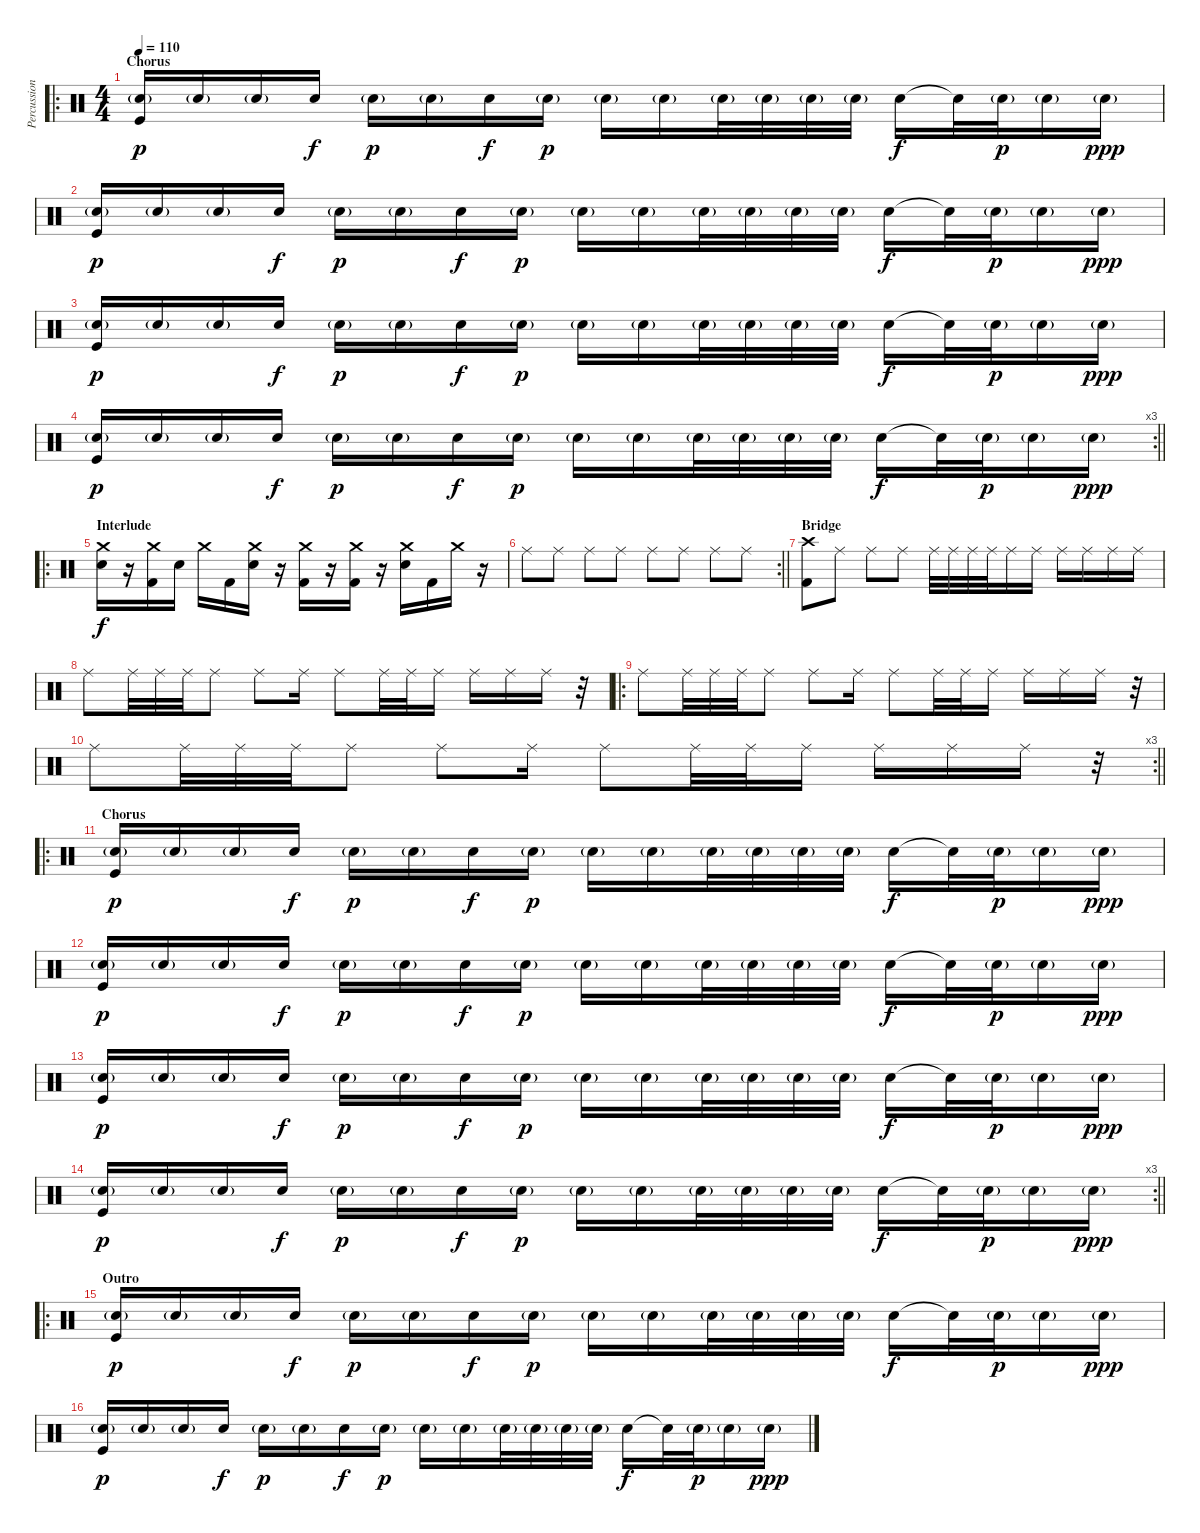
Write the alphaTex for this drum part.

\track ("Percussion" "Percussion") {instrument percussion}
\staff {score}
\articulation defaults
\ro
\ts (4 4)
\section ("" "Chorus")
\tempo 110
\clef neutral
\ks c
("Electric Snare (hit)"{g} "Kick (hit)").16{dy p} "Electric Snare (hit)"{g}.16 "Electric Snare (hit)"{g}.16 "Electric Snare (hit)".16{dy f} "Electric Snare (hit)"{g}.16{dy p} "Electric Snare (hit)"{g}.16 "Electric Snare (hit)".16{dy f} "Electric Snare (hit)"{g}.16{dy p} "Electric Snare (hit)"{g}.16 "Electric Snare (hit)"{g}.16 "Electric Snare (hit)"{g}.32 "Electric Snare (hit)"{g}.32 "Electric Snare (hit)"{g}.32 "Electric Snare (hit)"{g}.32 "Electric Snare (hit)".16{dy f} "Electric Snare (hit)"{t}.32 "Electric Snare (hit)"{g}.32{dy p} "Electric Snare (hit)"{g}.16 "Electric Snare (hit)"{g}.16{dy ppp} |
("Electric Snare (hit)"{g} "Kick (hit)").16{dy p} "Electric Snare (hit)"{g}.16 "Electric Snare (hit)"{g}.16 "Electric Snare (hit)".16{dy f} "Electric Snare (hit)"{g}.16{dy p} "Electric Snare (hit)"{g}.16 "Electric Snare (hit)".16{dy f} "Electric Snare (hit)"{g}.16{dy p} "Electric Snare (hit)"{g}.16 "Electric Snare (hit)"{g}.16 "Electric Snare (hit)"{g}.32 "Electric Snare (hit)"{g}.32 "Electric Snare (hit)"{g}.32 "Electric Snare (hit)"{g}.32 "Electric Snare (hit)".16{dy f} "Electric Snare (hit)"{t}.32 "Electric Snare (hit)"{g}.32{dy p} "Electric Snare (hit)"{g}.16 "Electric Snare (hit)"{g}.16{dy ppp} |
("Electric Snare (hit)"{g} "Kick (hit)").16{dy p} "Electric Snare (hit)"{g}.16 "Electric Snare (hit)"{g}.16 "Electric Snare (hit)".16{dy f} "Electric Snare (hit)"{g}.16{dy p} "Electric Snare (hit)"{g}.16 "Electric Snare (hit)".16{dy f} "Electric Snare (hit)"{g}.16{dy p} "Electric Snare (hit)"{g}.16 "Electric Snare (hit)"{g}.16 "Electric Snare (hit)"{g}.32 "Electric Snare (hit)"{g}.32 "Electric Snare (hit)"{g}.32 "Electric Snare (hit)"{g}.32 "Electric Snare (hit)".16{dy f} "Electric Snare (hit)"{t}.32 "Electric Snare (hit)"{g}.32{dy p} "Electric Snare (hit)"{g}.16 "Electric Snare (hit)"{g}.16{dy ppp} |
\rc 3
\barLineRight lightlight
("Electric Snare (hit)"{g} "Kick (hit)").16{dy p} "Electric Snare (hit)"{g}.16 "Electric Snare (hit)"{g}.16 "Electric Snare (hit)".16{dy f} "Electric Snare (hit)"{g}.16{dy p} "Electric Snare (hit)"{g}.16 "Electric Snare (hit)".16{dy f} "Electric Snare (hit)"{g}.16{dy p} "Electric Snare (hit)"{g}.16 "Electric Snare (hit)"{g}.16 "Electric Snare (hit)"{g}.32 "Electric Snare (hit)"{g}.32 "Electric Snare (hit)"{g}.32 "Electric Snare (hit)"{g}.32 "Electric Snare (hit)".16{dy f} "Electric Snare (hit)"{t}.32 "Electric Snare (hit)"{g}.32{dy p} "Electric Snare (hit)"{g}.16 "Electric Snare (hit)"{g}.16{dy ppp} |
\ro
\section ("" "Interlude")
("Crash medium (hit)" "Electric Snare (hit)").16{dy f} r.16 ("Crash medium (hit)" "Kick (hit) 2").16 "Electric Snare (hit)".16 "Crash medium (hit)".16 "Kick (hit) 2".16 ("Crash medium (hit)" "Electric Snare (hit)").16 r.16 ("Crash medium (hit)" "Kick (hit) 2").16 r.16 ("Crash medium (hit)" "Kick (hit) 2").16 r.16 ("Crash medium (hit)" "Electric Snare (hit)").16 "Kick (hit) 2".16 "Crash medium (hit)".16 r.16 |
\rc 2
\barLineRight lightlight "Ride (middle)".8 "Ride (middle)".8 "Ride (middle)".8 "Ride (middle)".8 "Ride (middle)".8 "Ride (middle)".8 "Ride (middle)".8 "Ride (middle)".8
|
\section ("" "Bridge")
("Crash high (hit)" "Kick (hit) 2").8 "Ride (middle)".8 "Ride (middle)".8 "Ride (middle)".8 "Ride (middle)".32 "Ride (middle)".32 "Ride (middle)".32 "Ride (middle)".32 "Ride (middle)".16 "Ride (middle)".16 "Ride (middle)".16 "Ride (middle)".16 "Ride (middle)".16 "Ride (middle)".16 |
"Ride (middle)".8 "Ride (middle)".32 "Ride (middle)".32 "Ride (middle)".32 "Ride (middle)".8 "Ride (middle)".8 "Ride (middle)".16 "Ride (middle)".8 "Ride (middle)".32 "Ride (middle)".32 "Ride (middle)".16 "Ride (middle)".16 "Ride (middle)".16 "Ride (middle)".16 r.32 |
\ro "Ride (middle)".8 "Ride (middle)".32 "Ride (middle)".32 "Ride (middle)".32 "Ride (middle)".8 "Ride (middle)".8 "Ride (middle)".16 "Ride (middle)".8 "Ride (middle)".32 "Ride (middle)".32 "Ride (middle)".16 "Ride (middle)".16 "Ride (middle)".16 "Ride (middle)".16
r.32 |
\rc 3
\barLineRight lightlight "Ride (middle)".8 "Ride (middle)".32 "Ride (middle)".32 "Ride (middle)".32 "Ride (middle)".8 "Ride (middle)".8 "Ride (middle)".16 "Ride (middle)".8 "Ride (middle)".32 "Ride (middle)".32 "Ride (middle)".16 "Ride (middle)".16 "Ride (middle)".16 "Ride (middle)".16
r.32 |
\ro
\section ("" "Chorus")
("Electric Snare (hit)"{g} "Kick (hit)").16{dy p} "Electric Snare (hit)"{g}.16 "Electric Snare (hit)"{g}.16 "Electric Snare (hit)".16{dy f} "Electric Snare (hit)"{g}.16{dy p} "Electric Snare (hit)"{g}.16 "Electric Snare (hit)".16{dy f} "Electric Snare (hit)"{g}.16{dy p} "Electric Snare (hit)"{g}.16 "Electric Snare (hit)"{g}.16 "Electric Snare (hit)"{g}.32 "Electric Snare (hit)"{g}.32 "Electric Snare (hit)"{g}.32 "Electric Snare (hit)"{g}.32 "Electric Snare (hit)".16{dy f} "Electric Snare (hit)"{t}.32 "Electric Snare (hit)"{g}.32{dy p} "Electric Snare (hit)"{g}.16 "Electric Snare (hit)"{g}.16{dy ppp} |
("Electric Snare (hit)"{g} "Kick (hit)").16{dy p} "Electric Snare (hit)"{g}.16 "Electric Snare (hit)"{g}.16 "Electric Snare (hit)".16{dy f} "Electric Snare (hit)"{g}.16{dy p} "Electric Snare (hit)"{g}.16 "Electric Snare (hit)".16{dy f} "Electric Snare (hit)"{g}.16{dy p} "Electric Snare (hit)"{g}.16 "Electric Snare (hit)"{g}.16 "Electric Snare (hit)"{g}.32 "Electric Snare (hit)"{g}.32 "Electric Snare (hit)"{g}.32 "Electric Snare (hit)"{g}.32 "Electric Snare (hit)".16{dy f} "Electric Snare (hit)"{t}.32 "Electric Snare (hit)"{g}.32{dy p} "Electric Snare (hit)"{g}.16 "Electric Snare (hit)"{g}.16{dy ppp} |
("Electric Snare (hit)"{g} "Kick (hit)").16{dy p} "Electric Snare (hit)"{g}.16 "Electric Snare (hit)"{g}.16 "Electric Snare (hit)".16{dy f} "Electric Snare (hit)"{g}.16{dy p} "Electric Snare (hit)"{g}.16 "Electric Snare (hit)".16{dy f} "Electric Snare (hit)"{g}.16{dy p} "Electric Snare (hit)"{g}.16 "Electric Snare (hit)"{g}.16 "Electric Snare (hit)"{g}.32 "Electric Snare (hit)"{g}.32 "Electric Snare (hit)"{g}.32 "Electric Snare (hit)"{g}.32 "Electric Snare (hit)".16{dy f} "Electric Snare (hit)"{t}.32 "Electric Snare (hit)"{g}.32{dy p} "Electric Snare (hit)"{g}.16 "Electric Snare (hit)"{g}.16{dy ppp} |
\rc 3
\barLineRight lightlight
("Electric Snare (hit)"{g} "Kick (hit)").16{dy p} "Electric Snare (hit)"{g}.16 "Electric Snare (hit)"{g}.16 "Electric Snare (hit)".16{dy f} "Electric Snare (hit)"{g}.16{dy p} "Electric Snare (hit)"{g}.16 "Electric Snare (hit)".16{dy f} "Electric Snare (hit)"{g}.16{dy p} "Electric Snare (hit)"{g}.16 "Electric Snare (hit)"{g}.16 "Electric Snare (hit)"{g}.32 "Electric Snare (hit)"{g}.32 "Electric Snare (hit)"{g}.32 "Electric Snare (hit)"{g}.32 "Electric Snare (hit)".16{dy f} "Electric Snare (hit)"{t}.32 "Electric Snare (hit)"{g}.32{dy p} "Electric Snare (hit)"{g}.16 "Electric Snare (hit)"{g}.16{dy ppp} |
\ro
\section ("" "Outro")
("Electric Snare (hit)"{g} "Kick (hit)").16{dy p} "Electric Snare (hit)"{g}.16 "Electric Snare (hit)"{g}.16 "Electric Snare (hit)".16{dy f} "Electric Snare (hit)"{g}.16{dy p} "Electric Snare (hit)"{g}.16 "Electric Snare (hit)".16{dy f} "Electric Snare (hit)"{g}.16{dy p} "Electric Snare (hit)"{g}.16 "Electric Snare (hit)"{g}.16 "Electric Snare (hit)"{g}.32 "Electric Snare (hit)"{g}.32 "Electric Snare (hit)"{g}.32 "Electric Snare (hit)"{g}.32 "Electric Snare (hit)".16{dy f} "Electric Snare (hit)"{t}.32 "Electric Snare (hit)"{g}.32{dy p} "Electric Snare (hit)"{g}.16 "Electric Snare (hit)"{g}.16{dy ppp} |
("Electric Snare (hit)"{g} "Kick (hit)").16{dy p} "Electric Snare (hit)"{g}.16 "Electric Snare (hit)"{g}.16 "Electric Snare (hit)".16{dy f} "Electric Snare (hit)"{g}.16{dy p} "Electric Snare (hit)"{g}.16 "Electric Snare (hit)".16{dy f} "Electric Snare (hit)"{g}.16{dy p} "Electric Snare (hit)"{g}.16 "Electric Snare (hit)"{g}.16 "Electric Snare (hit)"{g}.32 "Electric Snare (hit)"{g}.32 "Electric Snare (hit)"{g}.32 "Electric Snare (hit)"{g}.32 "Electric Snare (hit)".16{dy f} "Electric Snare (hit)"{t}.32 "Electric Snare (hit)"{g}.32{dy p} "Electric Snare (hit)"{g}.16 "Electric Snare (hit)"{g}.16{dy ppp}
